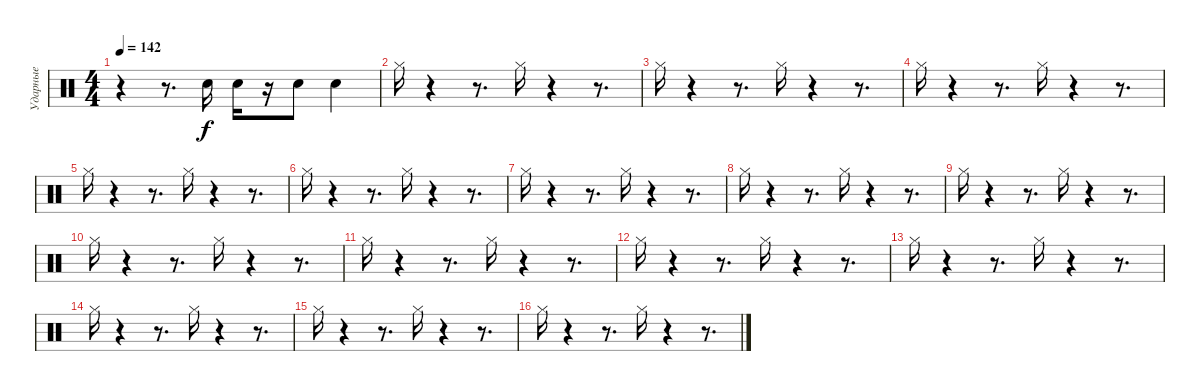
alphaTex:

\track ("Ударные" "Ударные") {instrument percussion}
\staff {score}
\articulation defaults
\ts (4 4)
\tempo 142
\clef neutral
\ks c
r.4{dy f} r.8{d} "Snare (hit) 2".16 "Snare (hit) 2".16 r.16 "Snare (hit) 2".8 "Snare (hit) 2".4 |
"Hi-Hat (closed)".16 r.4 r.8{d} "Hi-Hat (closed)".16 r.4 r.8{d} |
"Hi-Hat (closed)".16 r.4 r.8{d} "Hi-Hat (closed)".16 r.4 r.8{d} |
"Hi-Hat (closed)".16 r.4 r.8{d} "Hi-Hat (closed)".16 r.4 r.8{d} |
"Hi-Hat (closed)".16 r.4 r.8{d} "Hi-Hat (closed)".16 r.4 r.8{d} |
"Hi-Hat (closed)".16 r.4 r.8{d} "Hi-Hat (closed)".16 r.4 r.8{d} |
"Hi-Hat (closed)".16 r.4 r.8{d} "Hi-Hat (closed)".16 r.4 r.8{d} |
"Hi-Hat (closed)".16 r.4 r.8{d} "Hi-Hat (closed)".16 r.4 r.8{d} |
"Hi-Hat (closed)".16 r.4 r.8{d} "Hi-Hat (closed)".16 r.4 r.8{d} |
"Hi-Hat (closed)".16 r.4 r.8{d} "Hi-Hat (closed)".16 r.4 r.8{d} |
"Hi-Hat (closed)".16 r.4 r.8{d} "Hi-Hat (closed)".16 r.4 r.8{d} |
"Hi-Hat (closed)".16 r.4 r.8{d} "Hi-Hat (closed)".16 r.4 r.8{d} |
"Hi-Hat (closed)".16 r.4 r.8{d} "Hi-Hat (closed)".16 r.4 r.8{d} |
"Hi-Hat (closed)".16 r.4 r.8{d} "Hi-Hat (closed)".16 r.4 r.8{d} |
"Hi-Hat (closed)".16 r.4 r.8{d} "Hi-Hat (closed)".16 r.4 r.8{d} |
"Hi-Hat (closed)".16 r.4 r.8{d} "Hi-Hat (closed)".16 r.4 r.8{d}
